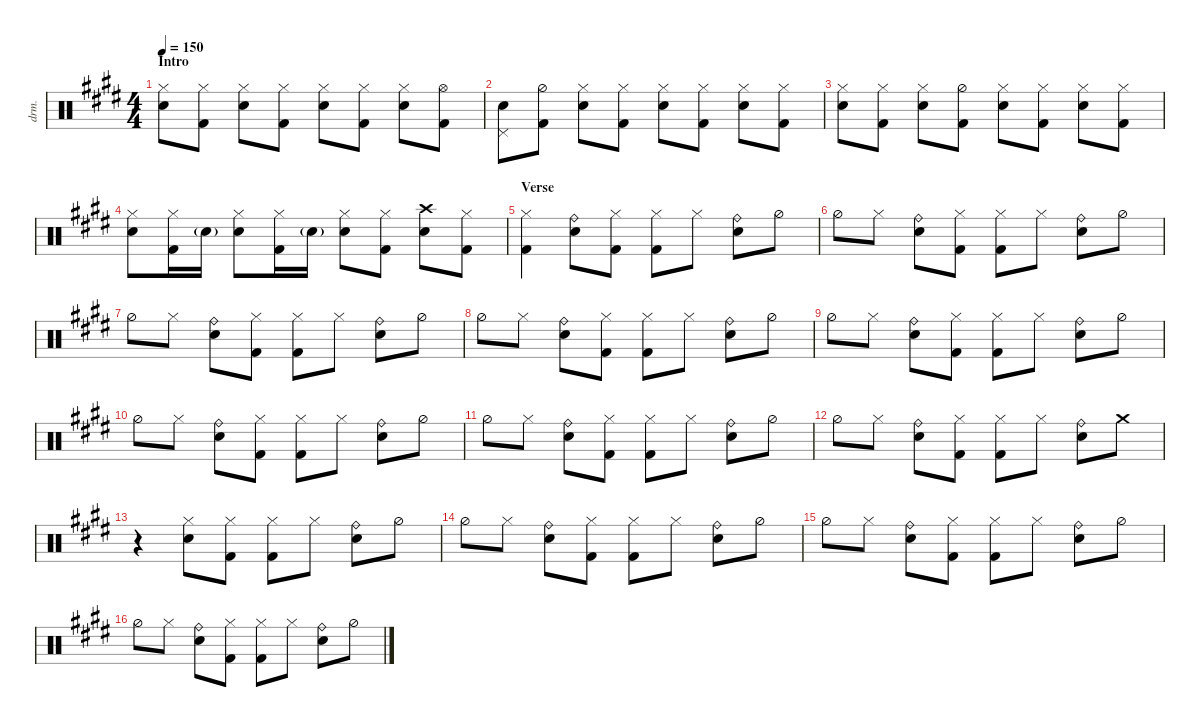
\defaultSystemsLayout 4
\hideDynamics
\bracketExtendMode nobrackets
\otherSystemsTrackNameOrientation horizontal
\track ("Drums - S. Copeland" "drm.") {instrument percussion}
\staff {score}
\articulation defaults
\ts (4 4)
\section ("" "Intro")
\tempo 150
\clef neutral
\ks c#minor
("Snare (hit) 2"{acc forcenatural} "Hi-Hat (closed)"{acc forcenatural}).8{dy mf beam Down} ("Hi-Hat (closed)"{acc forcenatural} "Kick (hit) 2"{acc forcenatural}).8{beam Down} ("Snare (hit) 2"{acc forcenatural} "Hi-Hat (closed)"{acc forcenatural}).8{beam Down} ("Hi-Hat (closed)"{acc forcenatural} "Kick (hit) 2"{acc forcenatural}).8{beam Down} ("Snare (hit) 2"{acc forcenatural} "Hi-Hat (closed)"{acc forcenatural}).8{beam Down} ("Hi-Hat (closed)"{acc forcenatural} "Kick (hit) 2"{acc forcenatural}).8{beam Down} ("Snare (hit) 2"{acc forcenatural} "Hi-Hat (closed)"{acc forcenatural}).8{beam Down} ("Hi-Hat (open)"{acc forcenatural} "Kick (hit) 2"{acc forcenatural}).8{beam Down} |
("Snare (hit) 2"{acc forcenatural} "Pedal Hi-Hat (hit)"{acc forcenatural}).8{beam Down} ("Hi-Hat (half)"{acc forcenatural} "Kick (hit) 2"{acc forcenatural}).8{beam Down} ("Snare (hit) 2"{acc forcenatural} "Hi-Hat (closed)"{acc forcenatural}).8{beam Down} ("Hi-Hat (closed)"{acc forcenatural} "Kick (hit) 2"{acc forcenatural}).8{beam Down} ("Snare (hit) 2"{acc forcenatural} "Hi-Hat (closed)"{acc forcenatural}).8{beam Down} ("Hi-Hat (closed)"{acc forcenatural} "Kick (hit) 2"{acc forcenatural}).8{beam Down} ("Snare (hit) 2"{acc forcenatural} "Hi-Hat (closed)"{acc forcenatural}).8{beam Down} ("Hi-Hat (closed)"{acc forcenatural} "Kick (hit) 2"{acc forcenatural}).8{beam Down} |
("Snare (hit) 2"{acc forcenatural} "Hi-Hat (closed)"{acc forcenatural}).8{beam Down} ("Hi-Hat (closed)"{acc forcenatural} "Kick (hit) 2"{acc forcenatural}).8{beam Down} ("Snare (hit) 2"{acc forcenatural} "Hi-Hat (closed)"{acc forcenatural}).8{beam Down} ("Hi-Hat (half)"{acc forcenatural} "Kick (hit) 2"{acc forcenatural}).8{beam Down} ("Snare (hit) 2"{acc forcenatural} "Hi-Hat (closed)"{acc forcenatural}).8{beam Down} ("Hi-Hat (closed)"{acc forcenatural} "Kick (hit) 2"{acc forcenatural}).8{beam Down} ("Snare (hit) 2"{acc forcenatural} "Hi-Hat (closed)"{acc forcenatural}).8{beam Down} ("Hi-Hat (closed)"{acc forcenatural} "Kick (hit) 2"{acc forcenatural}).8{beam Down} |
("Snare (hit) 2"{acc forcenatural} "Hi-Hat (closed)"{acc forcenatural}).8{beam Down} ("Hi-Hat (closed)"{acc forcenatural} "Kick (hit) 2"{acc forcenatural}).16{beam Down} "Snare (hit) 2"{g acc forcenatural}.16{beam Down} ("Snare (hit) 2"{acc forcenatural} "Hi-Hat (closed)"{acc forcenatural}).8{beam Down} ("Hi-Hat (closed)"{acc forcenatural} "Kick (hit) 2"{acc forcenatural}).16{beam Down} "Snare (hit) 2"{g acc forcenatural}.16{beam Down} ("Snare (hit) 2"{acc forcenatural} "Hi-Hat (closed)"{acc forcenatural}).8{beam Down} ("Hi-Hat (closed)"{acc forcenatural} "Kick (hit) 2"{acc forcenatural}).8{beam Down} ("Snare (hit) 2"{acc forcenatural} "Crash high (hit)"{acc forcenatural}).8{beam Down} ("Hi-Hat (closed)"{acc forcenatural} "Kick (hit) 2"{acc forcenatural}).8{beam Down} |
\section ("" "Verse")
("Kick (hit) 2"{acc forcenatural} "Hi-Hat (closed)"{acc forcenatural}).4{beam Down} ("Ride (bell)"{acc forcenatural} "Snare (hit) 2"{acc forcenatural}).8{beam Down} ("Hi-Hat (closed)"{acc forcenatural} "Kick (hit) 2"{acc forcenatural}).8{beam Down} ("Hi-Hat (closed)"{acc forcenatural} "Kick (hit) 2"{acc forcenatural}).8{beam Down} "Hi-Hat (closed)"{acc forcenatural}.8{beam Down} ("Ride (bell)"{acc forcenatural} "Snare (hit) 2"{acc forcenatural}).8{beam Down} "Hi-Hat (half)"{acc forcenatural}.8{beam Down} |
"Hi-Hat (half)"{acc forcenatural}.8{beam Down} "Hi-Hat (closed)"{acc forcenatural}.8{beam Down} ("Ride (bell)"{acc forcenatural} "Snare (hit) 2"{acc forcenatural}).8{beam Down} ("Hi-Hat (closed)"{acc forcenatural} "Kick (hit) 2"{acc forcenatural}).8{beam Down} ("Hi-Hat (closed)"{acc forcenatural} "Kick (hit) 2"{acc forcenatural}).8{beam Down} "Hi-Hat (closed)"{acc forcenatural}.8{beam Down} ("Ride (bell)"{acc forcenatural} "Snare (hit) 2"{acc forcenatural}).8{beam Down} "Hi-Hat (half)"{acc forcenatural}.8{beam Down} |
"Hi-Hat (half)"{acc forcenatural}.8{beam Down} "Hi-Hat (closed)"{acc forcenatural}.8{beam Down} ("Ride (bell)"{acc forcenatural} "Snare (hit) 2"{acc forcenatural}).8{beam Down} ("Hi-Hat (closed)"{acc forcenatural} "Kick (hit) 2"{acc forcenatural}).8{beam Down} ("Hi-Hat (closed)"{acc forcenatural} "Kick (hit) 2"{acc forcenatural}).8{beam Down} "Hi-Hat (closed)"{acc forcenatural}.8{beam Down} ("Ride (bell)"{acc forcenatural} "Snare (hit) 2"{acc forcenatural}).8{beam Down} "Hi-Hat (half)"{acc forcenatural}.8{beam Down} |
"Hi-Hat (half)"{acc forcenatural}.8{beam Down} "Hi-Hat (closed)"{acc forcenatural}.8{beam Down} ("Ride (bell)"{acc forcenatural} "Snare (hit) 2"{acc forcenatural}).8{beam Down} ("Hi-Hat (closed)"{acc forcenatural} "Kick (hit) 2"{acc forcenatural}).8{beam Down} ("Hi-Hat (closed)"{acc forcenatural} "Kick (hit) 2"{acc forcenatural}).8{beam Down} "Hi-Hat (closed)"{acc forcenatural}.8{beam Down} ("Ride (bell)"{acc forcenatural} "Snare (hit) 2"{acc forcenatural}).8{beam Down} "Hi-Hat (half)"{acc forcenatural}.8{beam Down} |
"Hi-Hat (half)"{acc forcenatural}.8{beam Down} "Hi-Hat (closed)"{acc forcenatural}.8{beam Down} ("Ride (bell)"{acc forcenatural} "Snare (hit) 2"{acc forcenatural}).8{beam Down} ("Hi-Hat (closed)"{acc forcenatural} "Kick (hit) 2"{acc forcenatural}).8{beam Down} ("Hi-Hat (closed)"{acc forcenatural} "Kick (hit) 2"{acc forcenatural}).8{beam Down} "Hi-Hat (closed)"{acc forcenatural}.8{beam Down} ("Ride (bell)"{acc forcenatural} "Snare (hit) 2"{acc forcenatural}).8{beam Down} "Hi-Hat (half)"{acc forcenatural}.8{beam Down} |
"Hi-Hat (half)"{acc forcenatural}.8{beam Down} "Hi-Hat (closed)"{acc forcenatural}.8{beam Down} ("Ride (bell)"{acc forcenatural} "Snare (hit) 2"{acc forcenatural}).8{beam Down} ("Hi-Hat (closed)"{acc forcenatural} "Kick (hit) 2"{acc forcenatural}).8{beam Down} ("Hi-Hat (closed)"{acc forcenatural} "Kick (hit) 2"{acc forcenatural}).8{beam Down} "Hi-Hat (closed)"{acc forcenatural}.8{beam Down} ("Ride (bell)"{acc forcenatural} "Snare (hit) 2"{acc forcenatural}).8{beam Down} "Hi-Hat (half)"{acc forcenatural}.8{beam Down} |
"Hi-Hat (half)"{acc forcenatural}.8{beam Down} "Hi-Hat (closed)"{acc forcenatural}.8{beam Down} ("Ride (bell)"{acc forcenatural} "Snare (hit) 2"{acc forcenatural}).8{beam Down} ("Hi-Hat (closed)"{acc forcenatural} "Kick (hit) 2"{acc forcenatural}).8{beam Down} ("Hi-Hat (closed)"{acc forcenatural} "Kick (hit) 2"{acc forcenatural}).8{beam Down} "Hi-Hat (closed)"{acc forcenatural}.8{beam Down} ("Ride (bell)"{acc forcenatural} "Snare (hit) 2"{acc forcenatural}).8{beam Down} "Hi-Hat (half)"{acc forcenatural}.8{beam Down} |
"Hi-Hat (half)"{acc forcenatural}.8{beam Down} "Hi-Hat (closed)"{acc forcenatural}.8{beam Down} ("Ride (bell)"{acc forcenatural} "Snare (hit) 2"{acc forcenatural}).8{beam Down} ("Hi-Hat (closed)"{acc forcenatural} "Kick (hit) 2"{acc forcenatural}).8{beam Down} ("Hi-Hat (closed)"{acc forcenatural} "Kick (hit) 2"{acc forcenatural}).8{beam Down} "Hi-Hat (closed)"{acc forcenatural}.8{beam Down} ("Ride (bell)"{acc forcenatural} "Snare (hit) 2"{acc forcenatural}).8{beam Down} "Crash medium (hit)"{acc forcenatural}.8{beam Down} |
r.4{beam Down} ("Snare (hit) 2"{acc forcenatural} "Hi-Hat (closed)"{acc forcenatural}).8{beam Down} ("Hi-Hat (closed)"{acc forcenatural} "Kick (hit) 2"{acc forcenatural}).8{beam Down} ("Hi-Hat (closed)"{acc forcenatural} "Kick (hit) 2"{acc forcenatural}).8{beam Down} "Hi-Hat (closed)"{acc forcenatural}.8{beam Down} ("Ride (bell)"{acc forcenatural} "Snare (hit) 2"{acc forcenatural}).8{beam Down} "Hi-Hat (half)"{acc forcenatural}.8{beam Down} |
"Hi-Hat (half)"{acc forcenatural}.8{beam Down} "Hi-Hat (closed)"{acc forcenatural}.8{beam Down} ("Ride (bell)"{acc forcenatural} "Snare (hit) 2"{acc forcenatural}).8{beam Down} ("Hi-Hat (closed)"{acc forcenatural} "Kick (hit) 2"{acc forcenatural}).8{beam Down} ("Hi-Hat (closed)"{acc forcenatural} "Kick (hit) 2"{acc forcenatural}).8{beam Down} "Hi-Hat (closed)"{acc forcenatural}.8{beam Down} ("Ride (bell)"{acc forcenatural} "Snare (hit) 2"{acc forcenatural}).8{beam Down} "Hi-Hat (half)"{acc forcenatural}.8{beam Down} |
"Hi-Hat (half)"{acc forcenatural}.8{beam Down} "Hi-Hat (closed)"{acc forcenatural}.8{beam Down} ("Ride (bell)"{acc forcenatural} "Snare (hit) 2"{acc forcenatural}).8{beam Down} ("Hi-Hat (closed)"{acc forcenatural} "Kick (hit) 2"{acc forcenatural}).8{beam Down} ("Hi-Hat (closed)"{acc forcenatural} "Kick (hit) 2"{acc forcenatural}).8{beam Down} "Hi-Hat (closed)"{acc forcenatural}.8{beam Down} ("Ride (bell)"{acc forcenatural} "Snare (hit) 2"{acc forcenatural}).8{beam Down} "Hi-Hat (half)"{acc forcenatural}.8{beam Down} |
"Hi-Hat (half)"{acc forcenatural}.8{beam Down} "Hi-Hat (closed)"{acc forcenatural}.8{beam Down} ("Ride (bell)"{acc forcenatural} "Snare (hit) 2"{acc forcenatural}).8{beam Down} ("Hi-Hat (closed)"{acc forcenatural} "Kick (hit) 2"{acc forcenatural}).8{beam Down} ("Hi-Hat (closed)"{acc forcenatural} "Kick (hit) 2"{acc forcenatural}).8{beam Down} "Hi-Hat (closed)"{acc forcenatural}.8{beam Down} ("Ride (bell)"{acc forcenatural} "Snare (hit) 2"{acc forcenatural}).8{beam Down} "Hi-Hat (half)"{acc forcenatural}.8{beam Down}
